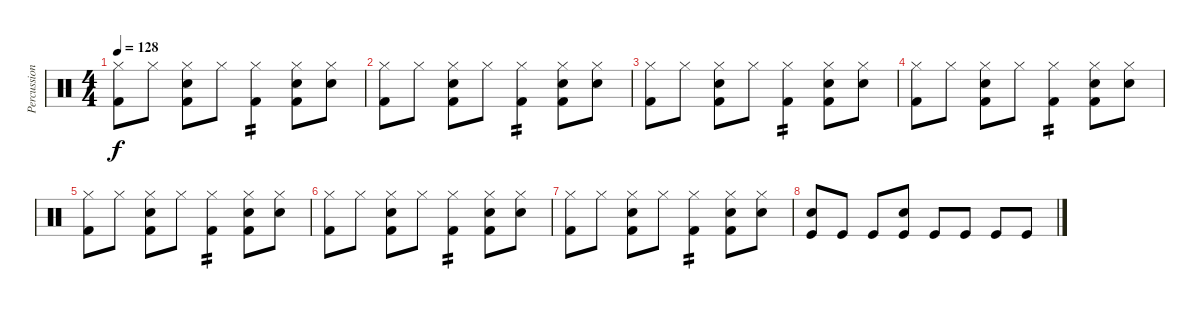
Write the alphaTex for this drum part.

\track ("Percussion" "Percussion") {instrument percussion}
\staff {score}
\articulation defaults
\ts (4 4)
\tempo 128
\clef neutral
\ks c
("Hi-Hat (closed)" "Kick (hit) 2").8{dy f} "Hi-Hat (closed)".8 ("Hi-Hat (closed)" "Snare (hit) 2" "Kick (hit) 2").8 "Hi-Hat (closed)".8 ("Hi-Hat (closed)" "Kick (hit) 2").4{tp 2} ("Hi-Hat (closed)" "Snare (hit) 2"{tr (38 16)} "Kick (hit) 2").8 ("Hi-Hat (closed)" "Snare (hit) 2").8 |
("Hi-Hat (closed)" "Kick (hit) 2").8 "Hi-Hat (closed)".8 ("Hi-Hat (closed)" "Snare (hit) 2" "Kick (hit) 2").8 "Hi-Hat (closed)".8 ("Hi-Hat (closed)" "Kick (hit) 2").4{tp 2} ("Hi-Hat (closed)" "Snare (hit) 2"{tr (38 16)} "Kick (hit) 2").8 ("Hi-Hat (closed)" "Snare (hit) 2").8 |
("Hi-Hat (closed)" "Kick (hit) 2").8 "Hi-Hat (closed)".8 ("Hi-Hat (closed)" "Snare (hit) 2" "Kick (hit) 2").8 "Hi-Hat (closed)".8 ("Hi-Hat (closed)" "Kick (hit) 2").4{tp 2} ("Hi-Hat (closed)" "Snare (hit) 2"{tr (38 16)} "Kick (hit) 2").8 ("Hi-Hat (closed)" "Snare (hit) 2").8 |
("Hi-Hat (closed)" "Kick (hit) 2").8 "Hi-Hat (closed)".8 ("Hi-Hat (closed)" "Snare (hit) 2" "Kick (hit) 2").8 "Hi-Hat (closed)".8 ("Hi-Hat (closed)" "Kick (hit) 2").4{tp 2} ("Hi-Hat (closed)" "Snare (hit) 2"{tr (38 16)} "Kick (hit) 2").8 ("Hi-Hat (closed)" "Snare (hit) 2").8 |
("Hi-Hat (closed)" "Kick (hit) 2").8 "Hi-Hat (closed)".8 ("Hi-Hat (closed)" "Snare (hit) 2" "Kick (hit) 2").8 "Hi-Hat (closed)".8 ("Hi-Hat (closed)" "Kick (hit) 2").4{tp 2} ("Hi-Hat (closed)" "Snare (hit) 2"{tr (38 16)} "Kick (hit) 2").8 ("Hi-Hat (closed)" "Snare (hit) 2").8 |
("Hi-Hat (closed)" "Kick (hit) 2").8 "Hi-Hat (closed)".8 ("Hi-Hat (closed)" "Snare (hit) 2" "Kick (hit) 2").8 "Hi-Hat (closed)".8 ("Hi-Hat (closed)" "Kick (hit) 2").4{tp 2} ("Hi-Hat (closed)" "Snare (hit) 2"{tr (38 16)} "Kick (hit) 2").8 ("Hi-Hat (closed)" "Snare (hit) 2").8 |
("Hi-Hat (closed)" "Kick (hit) 2").8 "Hi-Hat (closed)".8 ("Hi-Hat (closed)" "Snare (hit) 2" "Kick (hit) 2").8 "Hi-Hat (closed)".8 ("Hi-Hat (closed)" "Kick (hit) 2").4{tp 2} ("Hi-Hat (closed)" "Snare (hit) 2"{tr (38 16)} "Kick (hit) 2").8 ("Hi-Hat (closed)" "Snare (hit) 2").8 |
("Snare (hit) 2" "Kick (hit)").8 "Kick (hit)".8 "Kick (hit)".8 ("Snare (hit) 2" "Kick (hit)").8 "Kick (hit)".8 "Kick (hit)".8 "Kick (hit)".8 "Kick (hit)".8
